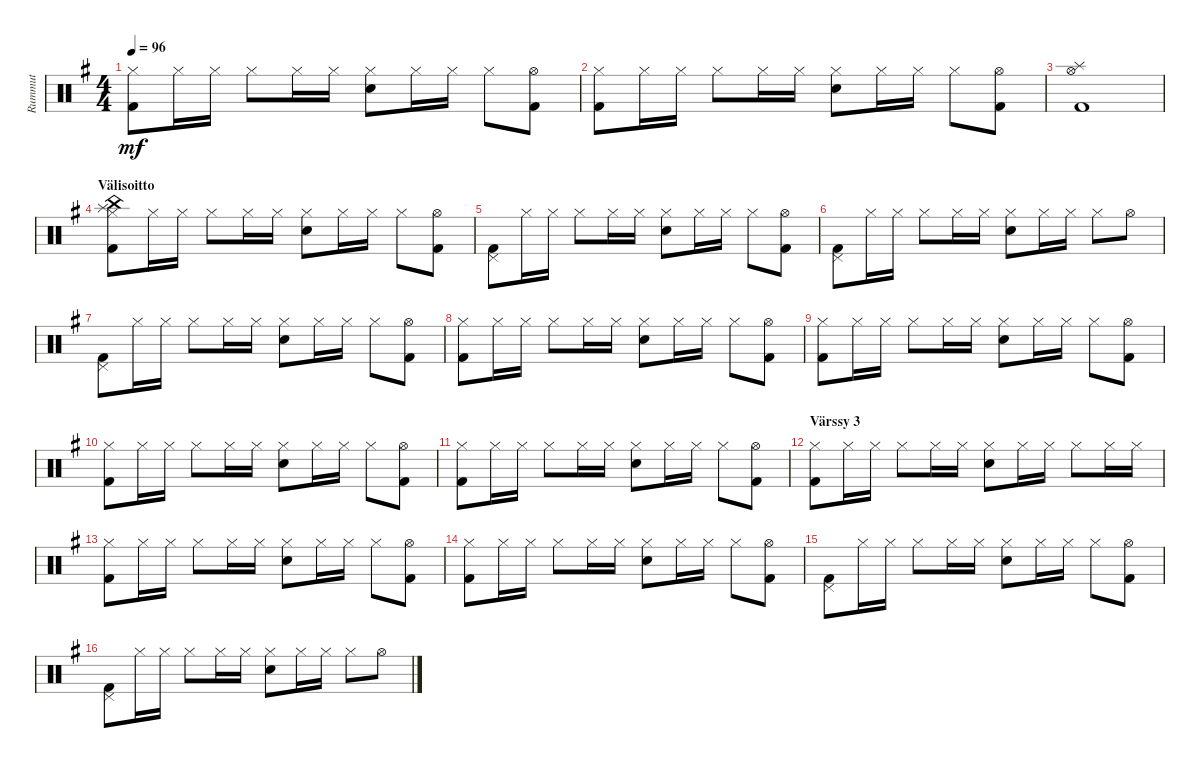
\track ("Rummut" "Rummut") {instrument percussion}
\staff {score}
\articulation defaults
\ts (4 4)
\tempo 96
\clef neutral
\ks g
("Kick (hit) 2" "Hi-Hat (closed)").8{dy mf} "Hi-Hat (closed)".16 "Hi-Hat (closed)".16 "Hi-Hat (closed)".8 "Hi-Hat (closed)".16 "Hi-Hat (closed)".16 ("Hi-Hat (closed)" "Snare (hit) 2").8 "Hi-Hat (closed)".16 "Hi-Hat (closed)".16 "Hi-Hat (closed)".8 ("Kick (hit) 2" "Hi-Hat (open)").8 |
("Kick (hit) 2" "Hi-Hat (closed)").8 "Hi-Hat (closed)".16 "Hi-Hat (closed)".16 "Hi-Hat (closed)".8 "Hi-Hat (closed)".16 "Hi-Hat (closed)".16 ("Hi-Hat (closed)" "Snare (hit) 2").8 "Hi-Hat (closed)".16 "Hi-Hat (closed)".16 "Hi-Hat (closed)".8 ("Kick (hit) 2" "Hi-Hat (open)").8 |
("Kick (hit) 2" "Splash (hit)" "Hi-Hat (open)").1 |
\section ("" "Välisoitto")
("Kick (hit) 2" "Splash (hit)" "China (hit)" "Hi-Hat (closed)").8 "Hi-Hat (closed)".16 "Hi-Hat (closed)".16 "Hi-Hat (closed)".8 "Hi-Hat (closed)".16 "Hi-Hat (closed)".16 ("Hi-Hat (closed)" "Snare (hit) 2").8 "Hi-Hat (closed)".16 "Hi-Hat (closed)".16 "Hi-Hat (closed)".8 ("Kick (hit) 2" "Hi-Hat (open)").8 |
("Kick (hit) 2" "Pedal Hi-Hat (hit)").8 "Hi-Hat (closed)".16 "Hi-Hat (closed)".16 "Hi-Hat (closed)".8 "Hi-Hat (closed)".16 "Hi-Hat (closed)".16 ("Hi-Hat (closed)" "Snare (hit) 2").8 "Hi-Hat (closed)".16 "Hi-Hat (closed)".16 "Hi-Hat (closed)".8 ("Kick (hit) 2" "Hi-Hat (open)").8 |
("Kick (hit) 2" "Pedal Hi-Hat (hit)").8 "Hi-Hat (closed)".16 "Hi-Hat (closed)".16 "Hi-Hat (closed)".8 "Hi-Hat (closed)".16 "Hi-Hat (closed)".16 ("Hi-Hat (closed)" "Snare (hit) 2").8 "Hi-Hat (closed)".16 "Hi-Hat (closed)".16 "Hi-Hat (closed)".8 "Hi-Hat (open)".8 |
("Kick (hit) 2" "Pedal Hi-Hat (hit)").8 "Hi-Hat (closed)".16 "Hi-Hat (closed)".16 "Hi-Hat (closed)".8 "Hi-Hat (closed)".16 "Hi-Hat (closed)".16 ("Hi-Hat (closed)" "Snare (hit) 2").8 "Hi-Hat (closed)".16 "Hi-Hat (closed)".16 "Hi-Hat (closed)".8 ("Kick (hit) 2" "Hi-Hat (open)").8 |
("Kick (hit) 2" "Hi-Hat (closed)").8 "Hi-Hat (closed)".16 "Hi-Hat (closed)".16 "Hi-Hat (closed)".8 "Hi-Hat (closed)".16 "Hi-Hat (closed)".16 ("Hi-Hat (closed)" "Snare (hit) 2").8 "Hi-Hat (closed)".16 "Hi-Hat (closed)".16 "Hi-Hat (closed)".8 ("Kick (hit) 2" "Hi-Hat (open)").8 |
("Kick (hit) 2" "Hi-Hat (closed)").8 "Hi-Hat (closed)".16 "Hi-Hat (closed)".16 "Hi-Hat (closed)".8 "Hi-Hat (closed)".16 "Hi-Hat (closed)".16 ("Hi-Hat (closed)" "Snare (hit) 2").8 "Hi-Hat (closed)".16 "Hi-Hat (closed)".16 "Hi-Hat (closed)".8 ("Kick (hit) 2" "Hi-Hat (open)").8 |
("Kick (hit) 2" "Hi-Hat (closed)").8 "Hi-Hat (closed)".16 "Hi-Hat (closed)".16 "Hi-Hat (closed)".8 "Hi-Hat (closed)".16 "Hi-Hat (closed)".16 ("Hi-Hat (closed)" "Snare (hit) 2").8 "Hi-Hat (closed)".16 "Hi-Hat (closed)".16 "Hi-Hat (closed)".8 ("Kick (hit) 2" "Hi-Hat (open)").8 |
("Kick (hit) 2" "Hi-Hat (closed)").8 "Hi-Hat (closed)".16 "Hi-Hat (closed)".16 "Hi-Hat (closed)".8 "Hi-Hat (closed)".16 "Hi-Hat (closed)".16 ("Hi-Hat (closed)" "Snare (hit) 2").8 "Hi-Hat (closed)".16 "Hi-Hat (closed)".16 "Hi-Hat (closed)".8 ("Kick (hit) 2" "Hi-Hat (open)").8 |
\section ("" "Värssy 3")
("Kick (hit) 2" "Hi-Hat (closed)").8 "Hi-Hat (closed)".16 "Hi-Hat (closed)".16 "Hi-Hat (closed)".8 "Hi-Hat (closed)".16 "Hi-Hat (closed)".16 ("Hi-Hat (closed)" "Snare (hit) 2").8 "Hi-Hat (closed)".16 "Hi-Hat (closed)".16 "Hi-Hat (closed)".8 "Hi-Hat (closed)".16 "Hi-Hat (closed)".16 |
("Kick (hit) 2" "Hi-Hat (closed)").8 "Hi-Hat (closed)".16 "Hi-Hat (closed)".16 "Hi-Hat (closed)".8 "Hi-Hat (closed)".16 "Hi-Hat (closed)".16 ("Hi-Hat (closed)" "Snare (hit) 2").8 "Hi-Hat (closed)".16 "Hi-Hat (closed)".16 "Hi-Hat (closed)".8 ("Kick (hit) 2" "Hi-Hat (open)").8 |
("Kick (hit) 2" "Hi-Hat (closed)").8 "Hi-Hat (closed)".16 "Hi-Hat (closed)".16 "Hi-Hat (closed)".8 "Hi-Hat (closed)".16 "Hi-Hat (closed)".16 ("Hi-Hat (closed)" "Snare (hit) 2").8 "Hi-Hat (closed)".16 "Hi-Hat (closed)".16 "Hi-Hat (closed)".8 ("Kick (hit) 2" "Hi-Hat (open)").8 |
("Kick (hit) 2" "Pedal Hi-Hat (hit)").8 "Hi-Hat (closed)".16 "Hi-Hat (closed)".16 "Hi-Hat (closed)".8 "Hi-Hat (closed)".16 "Hi-Hat (closed)".16 ("Hi-Hat (closed)" "Snare (hit) 2").8 "Hi-Hat (closed)".16 "Hi-Hat (closed)".16 "Hi-Hat (closed)".8 ("Kick (hit) 2" "Hi-Hat (open)").8 |
("Kick (hit) 2" "Pedal Hi-Hat (hit)").8 "Hi-Hat (closed)".16 "Hi-Hat (closed)".16 "Hi-Hat (closed)".8 "Hi-Hat (closed)".16 "Hi-Hat (closed)".16 ("Hi-Hat (closed)" "Snare (hit) 2").8 "Hi-Hat (closed)".16 "Hi-Hat (closed)".16 "Hi-Hat (closed)".8 "Hi-Hat (open)".8
